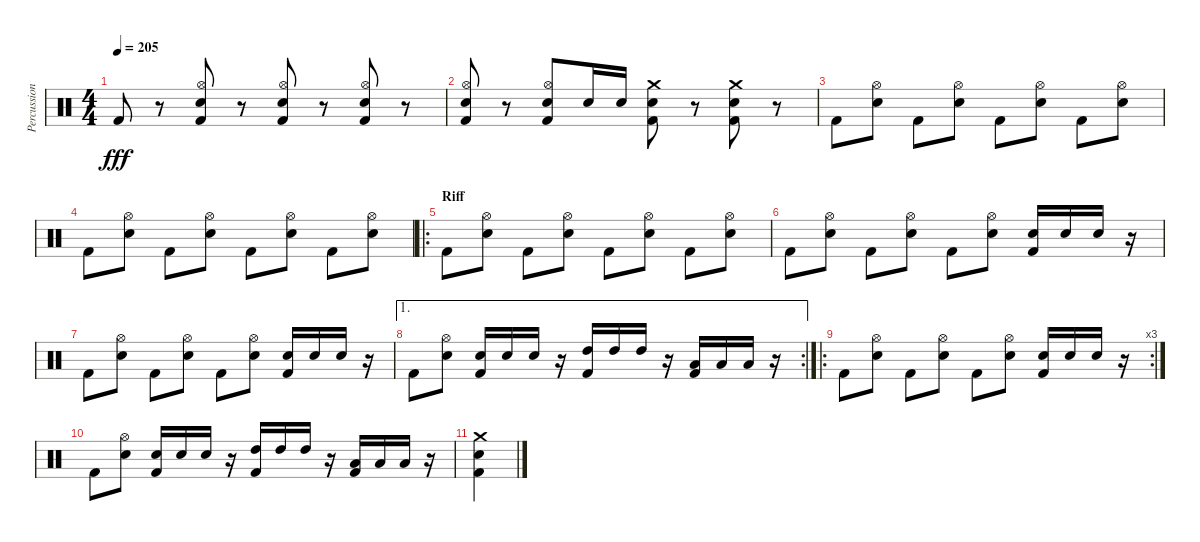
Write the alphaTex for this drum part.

\track ("Percussions" "Percussion") {instrument percussion}
\staff {score}
\articulation defaults
\ts (4 4)
\tempo 205
\clef neutral
\ks c "Kick (hit) 2".8{dy fff}
r.8 ("Hi-Hat (open)" "Snare (hit) 2" "Kick (hit) 2").8 r.8 ("Hi-Hat (open)" "Snare (hit) 2" "Kick (hit) 2").8 r.8 ("Hi-Hat (open)" "Snare (hit) 2" "Kick (hit) 2").8 r.8 |
("Hi-Hat (open)" "Snare (hit) 2" "Kick (hit) 2").8 r.8 ("Hi-Hat (open)" "Snare (hit) 2" "Kick (hit) 2").8 "Snare (hit) 2".16 "Snare (hit) 2".16 ("Crash medium (hit)" "Snare (hit) 2" "Kick (hit) 2").8 r.8 ("Crash medium (hit)" "Snare (hit) 2" "Kick (hit) 2").8 r.8 |
"Kick (hit) 2".8 ("Hi-Hat (open)" "Snare (hit) 2").8 "Kick (hit) 2".8 ("Hi-Hat (open)" "Snare (hit) 2").8 "Kick (hit) 2".8 ("Hi-Hat (open)" "Snare (hit) 2").8 "Kick (hit) 2".8 ("Hi-Hat (open)" "Snare (hit) 2").8 |
"Kick (hit) 2".8 ("Hi-Hat (open)" "Snare (hit) 2").8 "Kick (hit) 2".8 ("Hi-Hat (open)" "Snare (hit) 2").8 "Kick (hit) 2".8 ("Hi-Hat (open)" "Snare (hit) 2").8 "Kick (hit) 2".8 ("Hi-Hat (open)" "Snare (hit) 2").8 |
\ro
\section ("" "Riff")
"Kick (hit) 2".8 ("Hi-Hat (open)" "Snare (hit) 2").8 "Kick (hit) 2".8 ("Hi-Hat (open)" "Snare (hit) 2").8 "Kick (hit) 2".8 ("Hi-Hat (open)" "Snare (hit) 2").8 "Kick (hit) 2".8 ("Hi-Hat (open)" "Snare (hit) 2").8 |
"Kick (hit) 2".8 ("Hi-Hat (open)" "Snare (hit) 2").8 "Kick (hit) 2".8 ("Hi-Hat (open)" "Snare (hit) 2").8 "Kick (hit) 2".8 ("Hi-Hat (open)" "Snare (hit) 2").8 ("Snare (hit) 2" "Kick (hit) 2").16 "Snare (hit) 2".16 "Snare (hit) 2".16 r.16 |
"Kick (hit) 2".8 ("Hi-Hat (open)" "Snare (hit) 2").8 "Kick (hit) 2".8 ("Hi-Hat (open)" "Snare (hit) 2").8 "Kick (hit) 2".8 ("Hi-Hat (open)" "Snare (hit) 2").8 ("Snare (hit) 2" "Kick (hit) 2").16 "Snare (hit) 2".16 "Snare (hit) 2".16 r.16 |
\ae 1
\rc 2 "Kick (hit) 2".8
("Hi-Hat (open)" "Snare (hit) 2").8 ("Snare (hit) 2" "Kick (hit) 2").16 "Snare (hit) 2".16 "Snare (hit) 2".16 r.16 ("High Tom (hit)" "Kick (hit) 2").16 "High Tom (hit)".16 "High Tom (hit)".16 r.16 ("Low Tom (hit)" "Kick (hit) 2").16 "Low Tom (hit)".16 "Low Tom (hit)".16 r.16 |
\ro
\rc 3 "Kick (hit) 2".8
("Hi-Hat (open)" "Snare (hit) 2").8 "Kick (hit) 2".8 ("Hi-Hat (open)" "Snare (hit) 2").8 "Kick (hit) 2".8 ("Hi-Hat (open)" "Snare (hit) 2").8 ("Snare (hit) 2" "Kick (hit) 2").16 "Snare (hit) 2".16 "Snare (hit) 2".16 r.16 |
"Kick (hit) 2".8 ("Hi-Hat (open)" "Snare (hit) 2").8 ("Snare (hit) 2" "Kick (hit) 2").16 "Snare (hit) 2".16 "Snare (hit) 2".16 r.16 ("High Tom (hit)" "Kick (hit) 2").16 "High Tom (hit)".16 "High Tom (hit)".16 r.16 ("Low Tom (hit)" "Kick (hit) 2").16 "Low Tom (hit)".16 "Low Tom (hit)".16 r.16 |
("Crash medium (hit)" "Snare (hit) 2" "Kick (hit) 2").4
